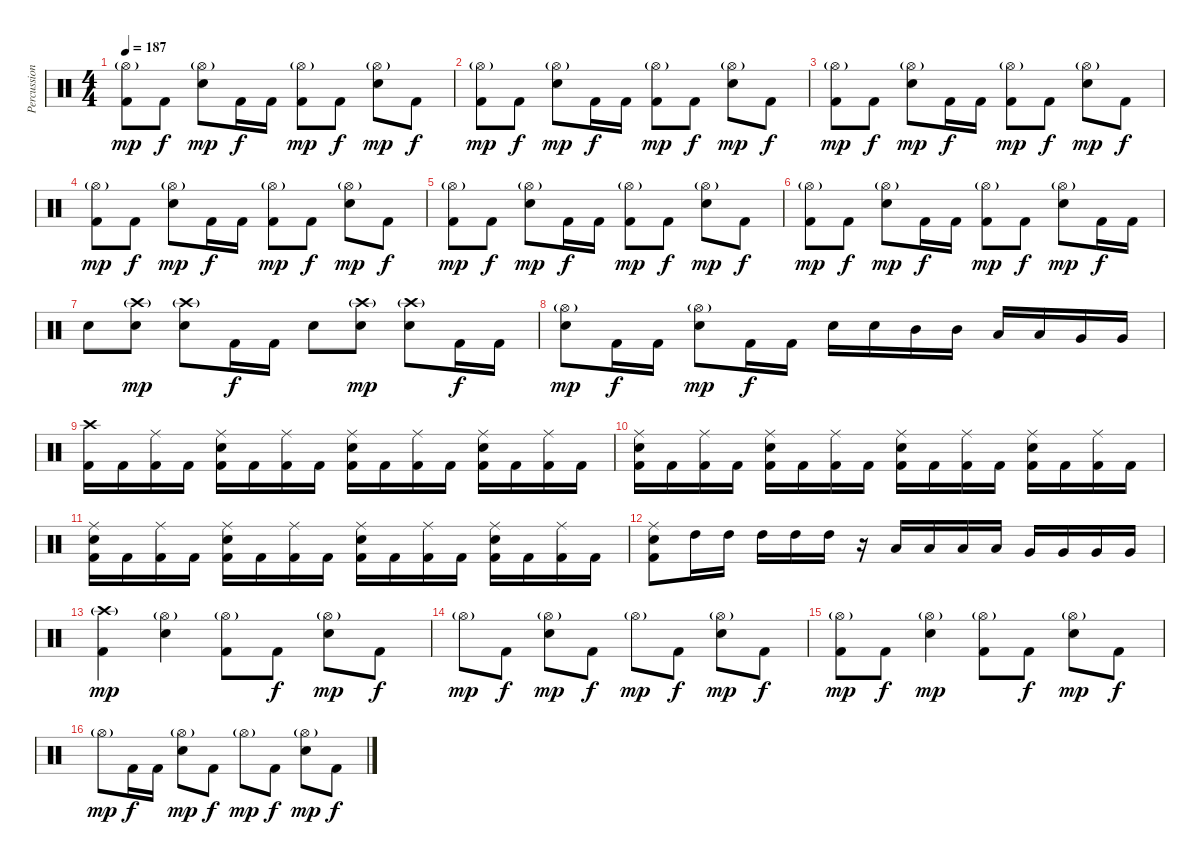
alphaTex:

\track ("Percussion" "Percussion") {instrument percussion}
\staff {score}
\articulation defaults
\ts (4 4)
\tempo 187
\clef neutral
\ks c
("Kick (hit) 2" "Hi-Hat (open)"{g}).8{dy mp volume 13} "Kick (hit) 2".8{dy f} ("Snare (hit) 2" "Hi-Hat (open)"{g}).8{dy mp} "Kick (hit) 2".16{dy f} "Kick (hit) 2".16 ("Kick (hit) 2" "Hi-Hat (open)"{g}).8{dy mp} "Kick (hit) 2".8{dy f} ("Snare (hit) 2" "Hi-Hat (open)"{g}).8{dy mp} "Kick (hit) 2".8{dy f} |
("Kick (hit) 2" "Hi-Hat (open)"{g}).8{dy mp} "Kick (hit) 2".8{dy f} ("Snare (hit) 2" "Hi-Hat (open)"{g}).8{dy mp} "Kick (hit) 2".16{dy f} "Kick (hit) 2".16 ("Kick (hit) 2" "Hi-Hat (open)"{g}).8{dy mp} "Kick (hit) 2".8{dy f} ("Snare (hit) 2" "Hi-Hat (open)"{g}).8{dy mp} "Kick (hit) 2".8{dy f} |
("Kick (hit) 2" "Hi-Hat (open)"{g}).8{dy mp} "Kick (hit) 2".8{dy f} ("Snare (hit) 2" "Hi-Hat (open)"{g}).8{dy mp} "Kick (hit) 2".16{dy f} "Kick (hit) 2".16 ("Kick (hit) 2" "Hi-Hat (open)"{g}).8{dy mp} "Kick (hit) 2".8{dy f} ("Snare (hit) 2" "Hi-Hat (open)"{g}).8{dy mp} "Kick (hit) 2".8{dy f} |
("Kick (hit) 2" "Hi-Hat (open)"{g}).8{dy mp} "Kick (hit) 2".8{dy f} ("Snare (hit) 2" "Hi-Hat (open)"{g}).8{dy mp} "Kick (hit) 2".16{dy f} "Kick (hit) 2".16 ("Kick (hit) 2" "Hi-Hat (open)"{g}).8{dy mp} "Kick (hit) 2".8{dy f} ("Snare (hit) 2" "Hi-Hat (open)"{g}).8{dy mp} "Kick (hit) 2".8{dy f} |
("Kick (hit) 2" "Hi-Hat (open)"{g}).8{dy mp} "Kick (hit) 2".8{dy f} ("Snare (hit) 2" "Hi-Hat (open)"{g}).8{dy mp} "Kick (hit) 2".16{dy f} "Kick (hit) 2".16 ("Kick (hit) 2" "Hi-Hat (open)"{g}).8{dy mp} "Kick (hit) 2".8{dy f} ("Snare (hit) 2" "Hi-Hat (open)"{g}).8{dy mp} "Kick (hit) 2".8{dy f} |
("Kick (hit) 2" "Hi-Hat (open)"{g}).8{dy mp} "Kick (hit) 2".8{dy f} ("Snare (hit) 2" "Hi-Hat (open)"{g}).8{dy mp} "Kick (hit) 2".16{dy f} "Kick (hit) 2".16 ("Kick (hit) 2" "Hi-Hat (open)"{g}).8{dy mp} "Kick (hit) 2".8{dy f} ("Snare (hit) 2" "Hi-Hat (open)"{g}).8{dy mp} "Kick (hit) 2".16{dy f} "Kick (hit) 2".16 |
"Snare (hit) 2".8 ("Crash high (hit)"{g} "Snare (hit) 2").8{dy mp} ("Crash high (hit)"{g} "Snare (hit) 2").8 "Kick (hit) 2".16{dy f} "Kick (hit) 2".16 "Snare (hit) 2".8 ("Crash high (hit)"{g} "Snare (hit) 2").8{dy mp} ("Crash high (hit)"{g} "Snare (hit) 2").8 "Kick (hit) 2".16{dy f} "Kick (hit) 2".16 |
("Snare (hit) 2" "Hi-Hat (open)"{g}).8{dy mp} "Kick (hit) 2".16{dy f} "Kick (hit) 2".16 ("Snare (hit) 2" "Hi-Hat (open)"{g}).8{dy mp} "Kick (hit) 2".16{dy f} "Kick (hit) 2".16 "Snare (hit) 2".16 "Snare (hit) 2".16 "Mid Tom (hit)".16 "Mid Tom (hit)".16 "Low Tom (hit)".16 "Low Tom (hit)".16 "Very Low Tom (hit)".16 "Very Low Tom (hit)".16 |
("Kick (hit) 2" "Crash high (hit)").16 "Kick (hit) 2".16 ("Kick (hit) 2" "Ride (middle)").16 "Kick (hit) 2".16 ("Kick (hit) 2" "Snare (hit) 2" "Ride (middle)").16 "Kick (hit) 2".16 ("Kick (hit) 2" "Ride (middle)").16 "Kick (hit) 2".16 ("Kick (hit) 2" "Snare (hit) 2" "Ride (middle)").16 "Kick (hit) 2".16 ("Kick (hit) 2" "Ride (middle)").16 "Kick (hit) 2".16 ("Kick (hit) 2" "Snare (hit) 2" "Ride (middle)").16 "Kick (hit) 2".16 ("Kick (hit) 2" "Ride (middle)").16 "Kick (hit) 2".16 |
("Kick (hit) 2" "Snare (hit) 2" "Ride (middle)").16 "Kick (hit) 2".16 ("Kick (hit) 2" "Ride (middle)").16 "Kick (hit) 2".16 ("Kick (hit) 2" "Snare (hit) 2" "Ride (middle)").16 "Kick (hit) 2".16 ("Kick (hit) 2" "Ride (middle)").16 "Kick (hit) 2".16 ("Kick (hit) 2" "Snare (hit) 2" "Ride (middle)").16 "Kick (hit) 2".16 ("Kick (hit) 2" "Ride (middle)").16 "Kick (hit) 2".16 ("Kick (hit) 2" "Snare (hit) 2" "Ride (middle)").16 "Kick (hit) 2".16 ("Kick (hit) 2" "Ride (middle)").16 "Kick (hit) 2".16 |
("Kick (hit) 2" "Snare (hit) 2" "Ride (middle)").16 "Kick (hit) 2".16 ("Kick (hit) 2" "Ride (middle)").16 "Kick (hit) 2".16 ("Kick (hit) 2" "Snare (hit) 2" "Ride (middle)").16 "Kick (hit) 2".16 ("Kick (hit) 2" "Ride (middle)").16 "Kick (hit) 2".16 ("Kick (hit) 2" "Snare (hit) 2" "Ride (middle)").16 "Kick (hit) 2".16 ("Kick (hit) 2" "Ride (middle)").16 "Kick (hit) 2".16 ("Kick (hit) 2" "Snare (hit) 2" "Ride (middle)").16 "Kick (hit) 2".16 ("Kick (hit) 2" "Ride (middle)").16 "Kick (hit) 2".16 |
("Kick (hit) 2" "Snare (hit) 2" "Ride (middle)").8 "High Tom (hit)".16 "High Tom (hit)".16 "High Tom (hit)".16 "High Tom (hit)".16 "High Tom (hit)".16 r.16 "Low Tom (hit)".16 "Low Tom (hit)".16 "Low Tom (hit)".16 "Low Tom (hit)".16 "Very Low Tom (hit)".16 "Very Low Tom (hit)".16 "Very Low Tom (hit)".16 "Very Low Tom (hit)".16 |
("Kick (hit) 2" "Crash high (hit)"{g}).4{dy mp} ("Snare (hit) 2" "Hi-Hat (open)"{g}).4 ("Kick (hit) 2" "Hi-Hat (open)"{g}).8 "Kick (hit) 2".8{dy f} ("Snare (hit) 2" "Hi-Hat (open)"{g}).8{dy mp} "Kick (hit) 2".8{dy f} |
"Hi-Hat (open)"{g}.8{dy mp} "Kick (hit) 2".8{dy f} ("Snare (hit) 2" "Hi-Hat (open)"{g}).8{dy mp} "Kick (hit) 2".8{dy f} "Hi-Hat (open)"{g}.8{dy mp} "Kick (hit) 2".8{dy f} ("Snare (hit) 2" "Hi-Hat (open)"{g}).8{dy mp} "Kick (hit) 2".8{dy f} |
("Kick (hit) 2" "Hi-Hat (open)"{g}).8{dy mp} "Kick (hit) 2".8{dy f} ("Snare (hit) 2" "Hi-Hat (open)"{g}).4{dy mp} ("Kick (hit) 2" "Hi-Hat (open)"{g}).8 "Kick (hit) 2".8{dy f} ("Snare (hit) 2" "Hi-Hat (open)"{g}).8{dy mp} "Kick (hit) 2".8{dy f} |
"Hi-Hat (open)"{g}.8{dy mp} "Kick (hit) 2".16{dy f} "Kick (hit) 2".16 ("Snare (hit) 2" "Hi-Hat (open)"{g}).8{dy mp} "Kick (hit) 2".8{dy f} "Hi-Hat (open)"{g}.8{dy mp} "Kick (hit) 2".8{dy f} ("Snare (hit) 2" "Hi-Hat (open)"{g}).8{dy mp} "Kick (hit) 2".8{dy f}
